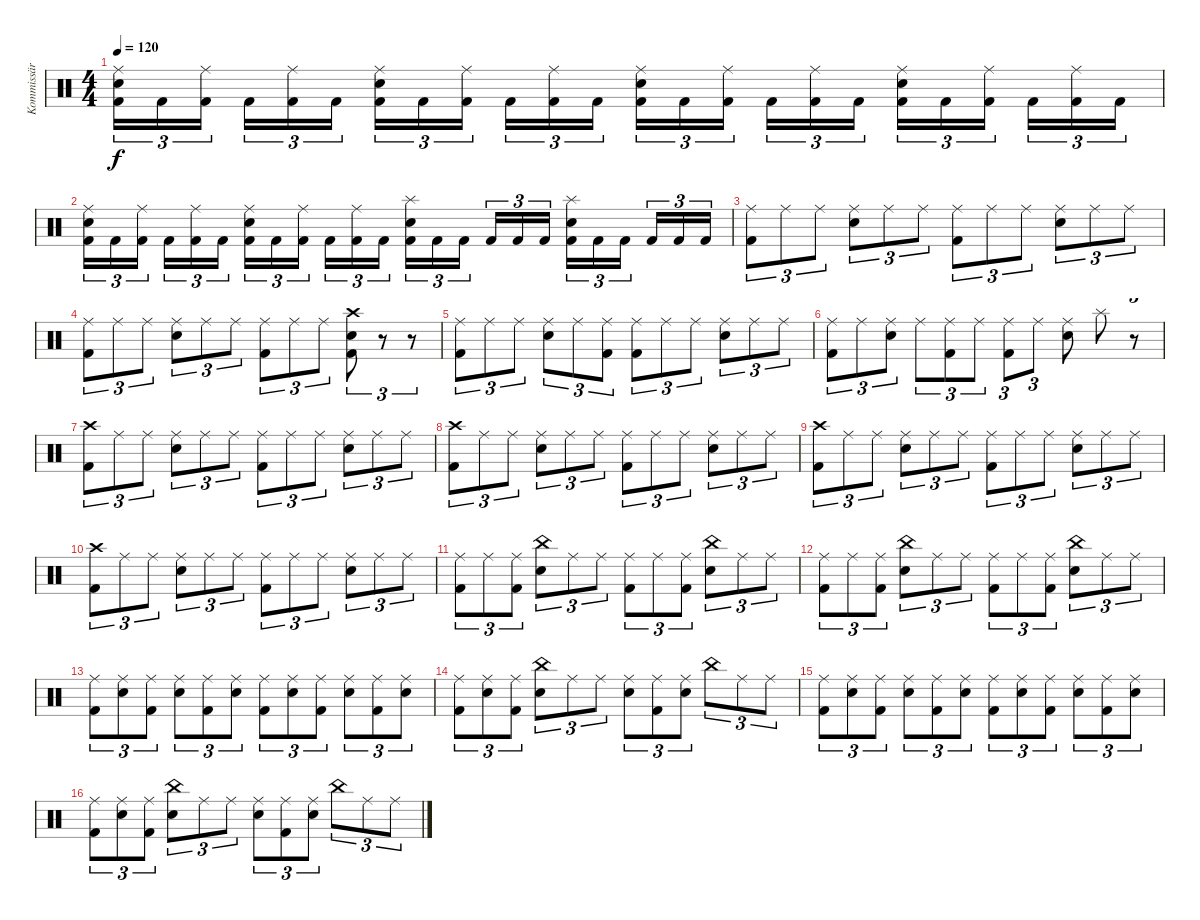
\track ("Kommissär Ogrim" "Kommissär ") {instrument percussion}
\staff {score}
\articulation defaults
\ts (4 4)
\tempo 120
\clef neutral
\ks c
("Snare (hit) 2" "Ride (middle)" "Kick (hit) 2").16{tu (3 2) dy f} "Kick (hit) 2".16{tu (3 2)} ("Ride (middle)" "Kick (hit) 2").16{tu (3 2)} "Kick (hit) 2".16{tu (3 2)} ("Ride (middle)" "Kick (hit) 2").16{tu (3 2)} "Kick (hit) 2".16{tu (3 2)} ("Snare (hit) 2" "Ride (middle)" "Kick (hit) 2").16{tu (3 2)} "Kick (hit) 2".16{tu (3 2)} ("Ride (middle)" "Kick (hit) 2").16{tu (3 2)} "Kick (hit) 2".16{tu (3 2)} ("Ride (middle)" "Kick (hit) 2").16{tu (3 2)} "Kick (hit) 2".16{tu (3 2)} ("Snare (hit) 2" "Ride (middle)" "Kick (hit) 2").16{tu (3 2)} "Kick (hit) 2".16{tu (3 2)} ("Ride (middle)" "Kick (hit) 2").16{tu (3 2)} "Kick (hit) 2".16{tu (3 2)} ("Ride (middle)" "Kick (hit) 2").16{tu (3 2)} "Kick (hit) 2".16{tu (3 2)} ("Snare (hit) 2" "Ride (middle)" "Kick (hit) 2").16{tu (3 2)} "Kick (hit) 2".16{tu (3 2)} ("Ride (middle)" "Kick (hit) 2").16{tu (3 2)} "Kick (hit) 2".16{tu (3 2)} ("Ride (middle)" "Kick (hit) 2").16{tu (3 2)} "Kick (hit) 2".16{tu (3 2)} |
("Snare (hit) 2" "Ride (middle)" "Kick (hit) 2").16{tu (3 2)} "Kick (hit) 2".16{tu (3 2)} ("Ride (middle)" "Kick (hit) 2").16{tu (3 2)} "Kick (hit) 2".16{tu (3 2)} ("Ride (middle)" "Kick (hit) 2").16{tu (3 2)} "Kick (hit) 2".16{tu (3 2)} ("Snare (hit) 2" "Ride (middle)" "Kick (hit) 2").16{tu (3 2)} "Kick (hit) 2".16{tu (3 2)} ("Ride (middle)" "Kick (hit) 2").16{tu (3 2)} "Kick (hit) 2".16{tu (3 2)} ("Ride (middle)" "Kick (hit) 2").16{tu (3 2)} "Kick (hit) 2".16{tu (3 2)} ("Snare (hit) 2" "Splash (hit)" "Kick (hit) 2").16{tu (3 2)} "Kick (hit) 2".16{tu (3 2)} "Kick (hit) 2".16{tu (3 2)} "Kick (hit) 2".16{tu (3 2)} "Kick (hit) 2".16{tu (3 2)} "Kick (hit) 2".16{tu (3 2)} ("Snare (hit) 2" "Splash (hit)" "Kick (hit) 2").16{tu (3 2)} "Kick (hit) 2".16{tu (3 2)} "Kick (hit) 2".16{tu (3 2)} "Kick (hit) 2".16{tu (3 2)} "Kick (hit) 2".16{tu (3 2)} "Kick (hit) 2".16{tu (3 2)} |
("Ride (middle)" "Kick (hit) 2").8{tu (3 2)} "Ride (middle)".8{tu (3 2)} "Ride (middle)".8{tu (3 2)} ("Snare (hit) 2" "Ride (middle)").8{tu (3 2)} "Ride (middle)".8{tu (3 2)} "Ride (middle)".8{tu (3 2)} ("Ride (middle)" "Kick (hit) 2").8{tu (3 2)} "Ride (middle)".8{tu (3 2)} "Ride (middle)".8{tu (3 2)} ("Snare (hit) 2" "Ride (middle)").8{tu (3 2)} "Ride (middle)".8{tu (3 2)} "Ride (middle)".8{tu (3 2)} |
("Ride (middle)" "Kick (hit) 2").8{tu (3 2)} "Ride (middle)".8{tu (3 2)} "Ride (middle)".8{tu (3 2)} ("Snare (hit) 2" "Ride (middle)").8{tu (3 2)} "Ride (middle)".8{tu (3 2)} "Ride (middle)".8{tu (3 2)} ("Ride (middle)" "Kick (hit) 2").8{tu (3 2)} "Ride (middle)".8{tu (3 2)} "Ride (middle)".8{tu (3 2)} ("Snare (hit) 2" "Crash high (hit)" "Kick (hit) 2").8{tu (3 2)} r.8{tu (3 2)} r.8{tu (3 2)} |
("Ride (middle)" "Kick (hit) 2").8{tu (3 2)} "Ride (middle)".8{tu (3 2)} "Ride (middle)".8{tu (3 2)} ("Snare (hit) 2" "Ride (middle)").8{tu (3 2)} "Ride (middle)".8{tu (3 2)} ("Ride (middle)" "Kick (hit) 2").8{tu (3 2)} ("Ride (middle)" "Kick (hit) 2").8{tu (3 2)} "Ride (middle)".8{tu (3 2)} "Ride (middle)".8{tu (3 2)} ("Snare (hit) 2" "Ride (middle)").8{tu (3 2)} "Ride (middle)".8{tu (3 2)} "Ride (middle)".8{tu (3 2)} |
("Ride (middle)" "Kick (hit) 2").8{tu (3 2)} "Ride (middle)".8{tu (3 2)} ("Snare (hit) 2" "Ride (middle)").8{tu (3 2)} "Ride (middle)".8{tu (3 2)} ("Ride (middle)" "Kick (hit) 2").8{tu (3 2)} "Ride (middle)".8{tu (3 2)} ("Ride (middle)" "Kick (hit) 2").8{tu (3 2)} "Ride (middle)".8{tu (3 2)} ("Snare (hit) 2" "Ride (middle)").8 "Splash (hit)".8 r.8{tu (3 2)} |
("Crash high (hit)" "Kick (hit) 2").8{tu (3 2)} "Ride (middle)".8{tu (3 2)} "Ride (middle)".8{tu (3 2)} ("Snare (hit) 2" "Ride (middle)").8{tu (3 2)} "Ride (middle)".8{tu (3 2)} "Ride (middle)".8{tu (3 2)} ("Ride (middle)" "Kick (hit) 2").8{tu (3 2)} "Ride (middle)".8{tu (3 2)} "Ride (middle)".8{tu (3 2)} ("Snare (hit) 2" "Ride (middle)").8{tu (3 2)} "Ride (middle)".8{tu (3 2)} "Ride (middle)".8{tu (3 2)} |
("Crash high (hit)" "Kick (hit) 2").8{tu (3 2)} "Ride (middle)".8{tu (3 2)} "Ride (middle)".8{tu (3 2)} ("Snare (hit) 2" "Ride (middle)").8{tu (3 2)} "Ride (middle)".8{tu (3 2)} "Ride (middle)".8{tu (3 2)} ("Ride (middle)" "Kick (hit) 2").8{tu (3 2)} "Ride (middle)".8{tu (3 2)} "Ride (middle)".8{tu (3 2)} ("Snare (hit) 2" "Ride (middle)").8{tu (3 2)} "Ride (middle)".8{tu (3 2)} "Ride (middle)".8{tu (3 2)} |
("Crash high (hit)" "Kick (hit) 2").8{tu (3 2)} "Ride (middle)".8{tu (3 2)} "Ride (middle)".8{tu (3 2)} ("Snare (hit) 2" "Ride (middle)").8{tu (3 2)} "Ride (middle)".8{tu (3 2)} "Ride (middle)".8{tu (3 2)} ("Ride (middle)" "Kick (hit) 2").8{tu (3 2)} "Ride (middle)".8{tu (3 2)} "Ride (middle)".8{tu (3 2)} ("Snare (hit) 2" "Ride (middle)").8{tu (3 2)} "Ride (middle)".8{tu (3 2)} "Ride (middle)".8{tu (3 2)} |
("Crash high (hit)" "Kick (hit) 2").8{tu (3 2)} "Ride (middle)".8{tu (3 2)} "Ride (middle)".8{tu (3 2)} ("Snare (hit) 2" "Ride (middle)").8{tu (3 2)} "Ride (middle)".8{tu (3 2)} "Ride (middle)".8{tu (3 2)} ("Ride (middle)" "Kick (hit) 2").8{tu (3 2)} "Ride (middle)".8{tu (3 2)} "Ride (middle)".8{tu (3 2)} ("Snare (hit) 2" "Ride (middle)").8{tu (3 2)} "Ride (middle)".8{tu (3 2)} "Ride (middle)".8{tu (3 2)} |
("Ride (middle)" "Kick (hit) 2").8{tu (3 2)} "Ride (middle)".8{tu (3 2)} ("Ride (middle)" "Kick (hit) 2").8{tu (3 2)} ("Snare (hit) 2" "China (hit)").8{tu (3 2)} "Ride (middle)".8{tu (3 2)} "Ride (middle)".8{tu (3 2)} ("Ride (middle)" "Kick (hit) 2").8{tu (3 2)} "Ride (middle)".8{tu (3 2)} ("Ride (middle)" "Kick (hit) 2").8{tu (3 2)} ("Snare (hit) 2" "China (hit)").8{tu (3 2)} "Ride (middle)".8{tu (3 2)} "Ride (middle)".8{tu (3 2)} |
("Ride (middle)" "Kick (hit) 2").8{tu (3 2)} "Ride (middle)".8{tu (3 2)} ("Ride (middle)" "Kick (hit) 2").8{tu (3 2)} ("Snare (hit) 2" "China (hit)").8{tu (3 2)} "Ride (middle)".8{tu (3 2)} "Ride (middle)".8{tu (3 2)} ("Ride (middle)" "Kick (hit) 2").8{tu (3 2)} "Ride (middle)".8{tu (3 2)} ("Ride (middle)" "Kick (hit) 2").8{tu (3 2)} ("Snare (hit) 2" "China (hit)").8{tu (3 2)} "Ride (middle)".8{tu (3 2)} "Ride (middle)".8{tu (3 2)} |
("Ride (middle)" "Kick (hit) 2").8{tu (3 2)} ("Snare (hit) 2" "Ride (middle)").8{tu (3 2)} ("Ride (middle)" "Kick (hit) 2").8{tu (3 2)} ("Snare (hit) 2" "Ride (middle)").8{tu (3 2)} ("Ride (middle)" "Kick (hit) 2").8{tu (3 2)} ("Snare (hit) 2" "Ride (middle)").8{tu (3 2)} ("Ride (middle)" "Kick (hit) 2").8{tu (3 2)} ("Snare (hit) 2" "Ride (middle)").8{tu (3 2)} ("Ride (middle)" "Kick (hit) 2").8{tu (3 2)} ("Snare (hit) 2" "Ride (middle)").8{tu (3 2)} ("Ride (middle)" "Kick (hit) 2").8{tu (3 2)} ("Snare (hit) 2" "Ride (middle)").8{tu (3 2)} |
("Ride (middle)" "Kick (hit) 2").8{tu (3 2)} ("Snare (hit) 2" "Ride (middle)").8{tu (3 2)} ("Ride (middle)" "Kick (hit) 2").8{tu (3 2)} ("Snare (hit) 2" "China (hit)").8{tu (3 2)} "Ride (middle)".8{tu (3 2)} "Ride (middle)".8{tu (3 2)} ("Snare (hit) 2" "Ride (middle)").8{tu (3 2)} ("Ride (middle)" "Kick (hit) 2").8{tu (3 2)} ("Snare (hit) 2" "Ride (middle)").8{tu (3 2)} "China (hit)".8{tu (3 2)} "Ride (middle)".8{tu (3 2)} "Ride (middle)".8{tu (3 2)} |
("Ride (middle)" "Kick (hit) 2").8{tu (3 2)} ("Snare (hit) 2" "Ride (middle)").8{tu (3 2)} ("Ride (middle)" "Kick (hit) 2").8{tu (3 2)} ("Snare (hit) 2" "Ride (middle)").8{tu (3 2)} ("Ride (middle)" "Kick (hit) 2").8{tu (3 2)} ("Snare (hit) 2" "Ride (middle)").8{tu (3 2)} ("Ride (middle)" "Kick (hit) 2").8{tu (3 2)} ("Snare (hit) 2" "Ride (middle)").8{tu (3 2)} ("Ride (middle)" "Kick (hit) 2").8{tu (3 2)} ("Snare (hit) 2" "Ride (middle)").8{tu (3 2)} ("Ride (middle)" "Kick (hit) 2").8{tu (3 2)} ("Snare (hit) 2" "Ride (middle)").8{tu (3 2)} |
("Ride (middle)" "Kick (hit) 2").8{tu (3 2)} ("Snare (hit) 2" "Ride (middle)").8{tu (3 2)} ("Ride (middle)" "Kick (hit) 2").8{tu (3 2)} ("Snare (hit) 2" "China (hit)").8{tu (3 2)} "Ride (middle)".8{tu (3 2)} "Ride (middle)".8{tu (3 2)} ("Snare (hit) 2" "Ride (middle)").8{tu (3 2)} ("Ride (middle)" "Kick (hit) 2").8{tu (3 2)} ("Snare (hit) 2" "Ride (middle)").8{tu (3 2)} "China (hit)".8{tu (3 2)} "Ride (middle)".8{tu (3 2)} "Ride (middle)".8{tu (3 2)}
